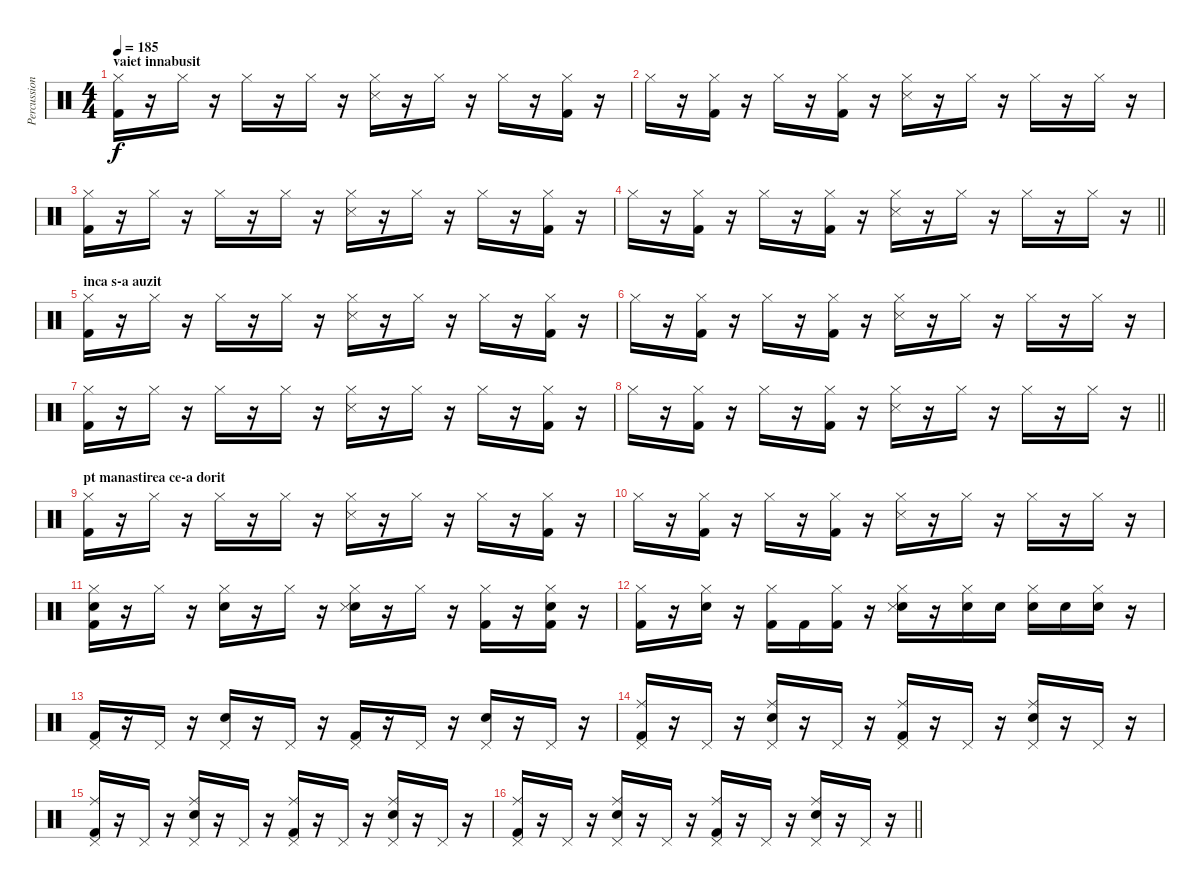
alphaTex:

\track ("Percussion" "Percussion") {instrument percussion}
\staff {score}
\articulation defaults
\ts (4 4)
\section ("" "vaiet innabusit")
\tempo 185
\clef neutral
\ks c
("Hi-Hat (closed)" "Kick (hit) 2").16{dy f} r.16 "Hi-Hat (closed)".16 r.16 "Hi-Hat (closed)".16 r.16 "Hi-Hat (closed)".16 r.16 ("Hi-Hat (closed)" "Metronome (hit)").16 r.16 "Hi-Hat (closed)".16 r.16 "Hi-Hat (closed)".16 r.16 ("Hi-Hat (closed)" "Kick (hit) 2").16 r.16 |
"Hi-Hat (closed)".16 r.16 ("Hi-Hat (closed)" "Kick (hit) 2").16 r.16 "Hi-Hat (closed)".16 r.16 ("Hi-Hat (closed)" "Kick (hit) 2").16 r.16 ("Hi-Hat (closed)" "Metronome (hit)").16 r.16 "Hi-Hat (closed)".16 r.16 "Hi-Hat (closed)".16 r.16 "Hi-Hat (closed)".16 r.16 |
("Hi-Hat (closed)" "Kick (hit) 2").16 r.16 "Hi-Hat (closed)".16 r.16 "Hi-Hat (closed)".16 r.16 "Hi-Hat (closed)".16 r.16 ("Hi-Hat (closed)" "Metronome (hit)").16 r.16 "Hi-Hat (closed)".16 r.16 "Hi-Hat (closed)".16 r.16 ("Hi-Hat (closed)" "Kick (hit) 2").16 r.16 |
\barLineRight lightlight "Hi-Hat (closed)".16
r.16 ("Hi-Hat (closed)" "Kick (hit) 2").16 r.16 "Hi-Hat (closed)".16 r.16 ("Hi-Hat (closed)" "Kick (hit) 2").16 r.16 ("Hi-Hat (closed)" "Metronome (hit)").16 r.16 "Hi-Hat (closed)".16 r.16 "Hi-Hat (closed)".16 r.16 "Hi-Hat (closed)".16 r.16 |
\section ("" "inca s-a auzit")
("Hi-Hat (closed)" "Kick (hit) 2").16 r.16 "Hi-Hat (closed)".16 r.16 "Hi-Hat (closed)".16 r.16 "Hi-Hat (closed)".16 r.16 ("Hi-Hat (closed)" "Metronome (hit)").16 r.16 "Hi-Hat (closed)".16 r.16 "Hi-Hat (closed)".16 r.16 ("Hi-Hat (closed)" "Kick (hit) 2").16 r.16 |
"Hi-Hat (closed)".16 r.16 ("Hi-Hat (closed)" "Kick (hit) 2").16 r.16 "Hi-Hat (closed)".16 r.16 ("Hi-Hat (closed)" "Kick (hit) 2").16 r.16 ("Hi-Hat (closed)" "Metronome (hit)").16 r.16 "Hi-Hat (closed)".16 r.16 "Hi-Hat (closed)".16 r.16 "Hi-Hat (closed)".16 r.16 |
("Hi-Hat (closed)" "Kick (hit) 2").16 r.16 "Hi-Hat (closed)".16 r.16 "Hi-Hat (closed)".16 r.16 "Hi-Hat (closed)".16 r.16 ("Hi-Hat (closed)" "Metronome (hit)").16 r.16 "Hi-Hat (closed)".16 r.16 "Hi-Hat (closed)".16 r.16 ("Hi-Hat (closed)" "Kick (hit) 2").16 r.16 |
\barLineRight lightlight "Hi-Hat (closed)".16
r.16 ("Hi-Hat (closed)" "Kick (hit) 2").16 r.16 "Hi-Hat (closed)".16 r.16 ("Hi-Hat (closed)" "Kick (hit) 2").16 r.16 ("Hi-Hat (closed)" "Metronome (hit)").16 r.16 "Hi-Hat (closed)".16 r.16 "Hi-Hat (closed)".16 r.16 "Hi-Hat (closed)".16 r.16 |
\section ("" "pt manastirea ce-a dorit")
("Hi-Hat (closed)" "Kick (hit) 2").16 r.16 "Hi-Hat (closed)".16 r.16 "Hi-Hat (closed)".16 r.16 "Hi-Hat (closed)".16 r.16 ("Hi-Hat (closed)" "Metronome (hit)").16 r.16 "Hi-Hat (closed)".16 r.16 "Hi-Hat (closed)".16 r.16 ("Hi-Hat (closed)" "Kick (hit) 2").16 r.16 |
"Hi-Hat (closed)".16 r.16 ("Hi-Hat (closed)" "Kick (hit) 2").16 r.16 "Hi-Hat (closed)".16 r.16 ("Hi-Hat (closed)" "Kick (hit) 2").16 r.16 ("Hi-Hat (closed)" "Metronome (hit)").16 r.16 "Hi-Hat (closed)".16 r.16 "Hi-Hat (closed)".16 r.16 "Hi-Hat (closed)".16 r.16 |
("Hi-Hat (closed)" "Snare (hit) 2" "Kick (hit) 2").16 r.16 "Hi-Hat (closed)".16 r.16 ("Hi-Hat (closed)" "Snare (hit) 2").16 r.16 "Hi-Hat (closed)".16 r.16 ("Hi-Hat (closed)" "Snare (hit) 2" "Metronome (hit)").16 r.16 "Hi-Hat (closed)".16 r.16 ("Hi-Hat (closed)" "Kick (hit) 2").16 r.16 ("Hi-Hat (closed)" "Snare (hit) 2" "Kick (hit) 2").16 r.16 |
("Hi-Hat (closed)" "Kick (hit) 2").16 r.16 ("Hi-Hat (closed)" "Snare (hit) 2").16 r.16 ("Hi-Hat (closed)" "Kick (hit) 2").16 "Kick (hit) 2".16 ("Hi-Hat (closed)" "Kick (hit) 2").16 r.16 ("Hi-Hat (closed)" "Snare (hit) 2" "Metronome (hit)").16 r.16 ("Hi-Hat (closed)" "Snare (hit) 2").16 "Snare (hit) 2".16 ("Hi-Hat (closed)" "Snare (hit) 2").16 "Snare (hit) 2".16 ("Hi-Hat (closed)" "Snare (hit) 2").16 r.16 |
("Pedal Hi-Hat (hit)" "Kick (hit) 2").16 r.16 "Pedal Hi-Hat (hit)".16 r.16 ("Pedal Hi-Hat (hit)" "Snare (hit) 2").16 r.16 "Pedal Hi-Hat (hit)".16 r.16 ("Pedal Hi-Hat (hit)" "Kick (hit) 2").16 r.16 "Pedal Hi-Hat (hit)".16 r.16 ("Pedal Hi-Hat (hit)" "Snare (hit) 2").16 r.16 "Pedal Hi-Hat (hit)".16 r.16 |
("Ride (middle)" "Pedal Hi-Hat (hit)" "Kick (hit) 2").16 r.16 "Pedal Hi-Hat (hit)".16 r.16 ("Ride (middle)" "Pedal Hi-Hat (hit)" "Snare (hit) 2").16 r.16 "Pedal Hi-Hat (hit)".16 r.16 ("Ride (middle)" "Pedal Hi-Hat (hit)" "Kick (hit) 2").16 r.16 "Pedal Hi-Hat (hit)".16 r.16 ("Ride (middle)" "Pedal Hi-Hat (hit)" "Snare (hit) 2").16 r.16 "Pedal Hi-Hat (hit)".16 r.16 |
("Ride (middle)" "Pedal Hi-Hat (hit)" "Kick (hit) 2").16 r.16 "Pedal Hi-Hat (hit)".16 r.16 ("Ride (middle)" "Pedal Hi-Hat (hit)" "Snare (hit) 2").16 r.16 "Pedal Hi-Hat (hit)".16 r.16 ("Ride (middle)" "Pedal Hi-Hat (hit)" "Kick (hit) 2").16 r.16 "Pedal Hi-Hat (hit)".16 r.16 ("Ride (middle)" "Pedal Hi-Hat (hit)" "Snare (hit) 2").16 r.16 "Pedal Hi-Hat (hit)".16 r.16 |
\barLineRight lightlight
("Ride (middle)" "Pedal Hi-Hat (hit)" "Kick (hit) 2").16 r.16 "Pedal Hi-Hat (hit)".16 r.16 ("Ride (middle)" "Pedal Hi-Hat (hit)" "Snare (hit) 2").16 r.16 "Pedal Hi-Hat (hit)".16 r.16 ("Ride (middle)" "Pedal Hi-Hat (hit)" "Kick (hit) 2").16 r.16 "Pedal Hi-Hat (hit)".16 r.16 ("Ride (middle)" "Pedal Hi-Hat (hit)" "Snare (hit) 2").16 r.16 "Pedal Hi-Hat (hit)".16 r.16
